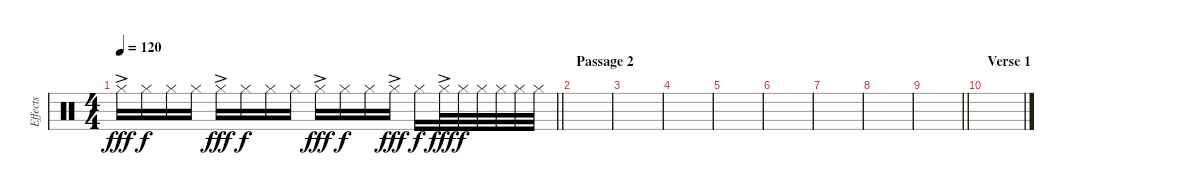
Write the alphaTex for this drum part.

\track ("Effects" "Effects") {instrument percussion}
\staff {score}
\articulation defaults
\ts (4 4)
\tempo 120
\clef neutral
\barLineRight lightlight
\ks c "Hi-Hat (closed)"{ac}.16{dy fff} "Hi-Hat (closed)".16{dy f} "Hi-Hat (closed)".16 "Hi-Hat (closed)".16 "Hi-Hat (closed)"{ac}.16{dy fff} "Hi-Hat (closed)".16{dy f} "Hi-Hat (closed)".16 "Hi-Hat (closed)".16 "Hi-Hat (closed)"{ac}.16{dy fff} "Hi-Hat (closed)".16{dy f} "Hi-Hat (closed)".16 "Hi-Hat (closed)"{ac}.16{dy fff} "Hi-Hat (closed)".16{dy f} "Hi-Hat (closed)"{ac}.32{dy fff} "Hi-Hat (closed)".32{dy f} "Hi-Hat (closed)".32 "Hi-Hat (closed)".32 "Hi-Hat (closed)".32 "Hi-Hat (closed)".32
|
\section ("" "Passage 2")
|
|
|
|
|
|
|
\barLineRight lightlight
|
\section ("" "Verse 1")
